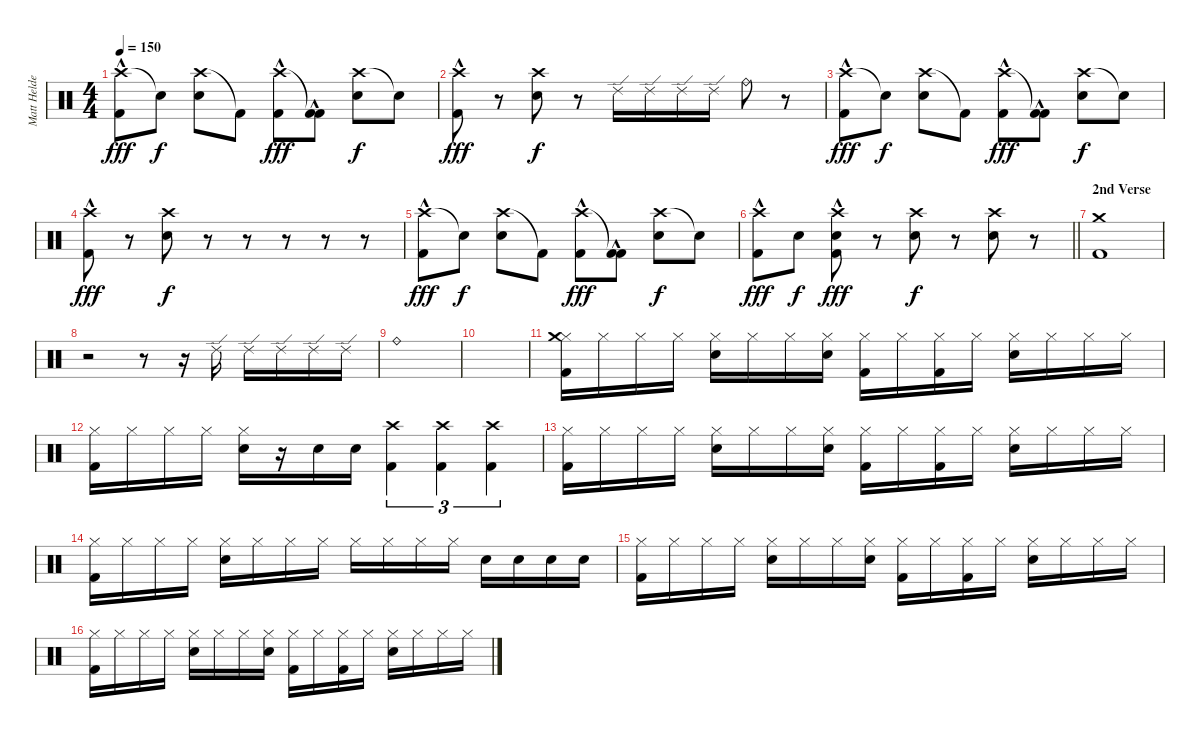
\track ("Matt Helders" "Matt Helde") {instrument percussion}
\staff {score}
\articulation defaults
\ts (4 4)
\tempo 150
\clef neutral
\ks c
("Crash high (hit)" "Kick (hit) 2"{hac}).8{dy fff} "Snare (hit)"{t}.8{dy f} ("Crash high (hit)" "Snare (hit) 2").8 "Kick (hit) 2"{t}.8 ("Crash high (hit)" "Kick (hit) 2"{hac}).8{dy fff} ("Kick (hit) 2"{t} "Kick (hit) 2"{hac}).8 ("Crash high (hit)" "Snare (hit) 2").8{dy f} "Snare (hit)"{t}.8 |
("Crash high (hit)" "Kick (hit) 2"{hac}).8{dy fff} r.8 ("Crash high (hit)" "Snare (hit) 2").8{dy f} r.8 "Ride (edge) 2".16 "Ride (edge) 2".16 "Ride (edge) 2".16 "Ride (edge) 2".16 "Ride (bell)".8 r.8 |
("Crash high (hit)" "Kick (hit) 2"{hac}).8{dy fff} "Snare (hit)"{t}.8{dy f} ("Crash high (hit)" "Snare (hit) 2").8 "Kick (hit) 2"{t}.8 ("Crash high (hit)" "Kick (hit) 2"{hac}).8{dy fff} ("Kick (hit) 2"{t} "Kick (hit) 2"{hac}).8 ("Crash high (hit)" "Snare (hit) 2").8{dy f} "Snare (hit)"{t}.8 |
("Crash high (hit)" "Kick (hit) 2"{hac}).8{dy fff} r.8 ("Crash high (hit)" "Snare (hit) 2").8{dy f} r.8 r.8 r.8 r.8 r.8 |
("Crash high (hit)" "Kick (hit) 2"{hac}).8{dy fff} "Snare (hit)"{t}.8{dy f} ("Crash high (hit)" "Snare (hit) 2").8 "Kick (hit) 2"{t}.8 ("Crash high (hit)" "Kick (hit) 2"{hac}).8{dy fff} ("Kick (hit) 2"{t} "Kick (hit) 2"{hac}).8 ("Crash high (hit)" "Snare (hit) 2").8{dy f} "Snare (hit)"{t}.8 |
\barLineRight lightlight
("Crash high (hit)" "Kick (hit) 2"{hac}).8{dy fff} "Snare (hit) 2".8{dy f} ("Crash high (hit)" "Snare (hit) 2" "Kick (hit) 2"{hac}).8{dy fff} r.8 ("Crash high (hit)" "Snare (hit) 2").8{dy f} r.8 ("Crash high (hit)" "Snare (hit) 2").8 r.8 |
\section ("" "2nd Verse")
("Crash medium (hit)" "Kick (hit) 2").1 |
r.2 r.8 r.16 "Ride (edge) 2".16 "Ride (edge) 2".16 "Ride (edge) 2".16 "Ride (edge) 2".16 "Ride (edge) 2".16 |
"Ride (bell)".1 |
|
("Hi-Hat (closed)" "Crash medium (hit)" "Kick (hit) 2").16 "Hi-Hat (closed)".16 "Hi-Hat (closed)".16 "Hi-Hat (closed)".16 ("Hi-Hat (closed)" "Snare (hit) 2").16 "Hi-Hat (closed)".16 "Hi-Hat (closed)".16 ("Hi-Hat (closed)" "Snare (hit) 2").16 ("Hi-Hat (closed)" "Kick (hit) 2").16 "Hi-Hat (closed)".16 ("Hi-Hat (closed)" "Kick (hit) 2").16 "Hi-Hat (closed)".16 ("Hi-Hat (closed)" "Snare (hit) 2").16 "Hi-Hat (closed)".16 "Hi-Hat (closed)".16 "Hi-Hat (closed)".16 |
("Hi-Hat (closed)" "Kick (hit) 2").16 "Hi-Hat (closed)".16 "Hi-Hat (closed)".16 "Hi-Hat (closed)".16 ("Hi-Hat (closed)" "Snare (hit) 2").16 r.16 "Snare (hit) 2".16 "Snare (hit) 2".16 ("Kick (hit) 2" "Crash high (hit)").4{tu (3 2)} ("Kick (hit) 2" "Crash high (hit)").4{tu (3 2)} ("Kick (hit) 2" "Crash high (hit)").4{tu (3 2)} |
("Hi-Hat (closed)" "Kick (hit) 2").16 "Hi-Hat (closed)".16 "Hi-Hat (closed)".16 "Hi-Hat (closed)".16 ("Hi-Hat (closed)" "Snare (hit) 2").16 "Hi-Hat (closed)".16 "Hi-Hat (closed)".16 ("Hi-Hat (closed)" "Snare (hit) 2").16 ("Hi-Hat (closed)" "Kick (hit) 2").16 "Hi-Hat (closed)".16 ("Hi-Hat (closed)" "Kick (hit) 2").16 "Hi-Hat (closed)".16 ("Hi-Hat (closed)" "Snare (hit) 2").16 "Hi-Hat (closed)".16 "Hi-Hat (closed)".16 "Hi-Hat (closed)".16 |
("Hi-Hat (closed)" "Kick (hit) 2").16 "Hi-Hat (closed)".16 "Hi-Hat (closed)".16 "Hi-Hat (closed)".16 ("Hi-Hat (closed)" "Snare (hit) 2").16 "Hi-Hat (closed)".16 "Hi-Hat (closed)".16 "Hi-Hat (closed)".16 "Hi-Hat (closed)".16 "Hi-Hat (closed)".16 "Hi-Hat (closed)".16 "Hi-Hat (closed)".16 "Snare (hit) 2".16 "Snare (hit) 2".16 "Snare (hit) 2".16 "Snare (hit) 2".16 |
("Hi-Hat (closed)" "Kick (hit) 2").16 "Hi-Hat (closed)".16 "Hi-Hat (closed)".16 "Hi-Hat (closed)".16 ("Hi-Hat (closed)" "Snare (hit) 2").16 "Hi-Hat (closed)".16 "Hi-Hat (closed)".16 ("Hi-Hat (closed)" "Snare (hit) 2").16 ("Hi-Hat (closed)" "Kick (hit) 2").16 "Hi-Hat (closed)".16 ("Hi-Hat (closed)" "Kick (hit) 2").16 "Hi-Hat (closed)".16 ("Hi-Hat (closed)" "Snare (hit) 2").16 "Hi-Hat (closed)".16 "Hi-Hat (closed)".16 "Hi-Hat (closed)".16 |
("Hi-Hat (closed)" "Kick (hit) 2").16 "Hi-Hat (closed)".16 "Hi-Hat (closed)".16 "Hi-Hat (closed)".16 ("Hi-Hat (closed)" "Snare (hit) 2").16 "Hi-Hat (closed)".16 "Hi-Hat (closed)".16 ("Hi-Hat (closed)" "Snare (hit) 2").16 ("Hi-Hat (closed)" "Kick (hit) 2").16 "Hi-Hat (closed)".16 ("Hi-Hat (closed)" "Kick (hit) 2").16 "Hi-Hat (closed)".16 ("Hi-Hat (closed)" "Snare (hit) 2").16 "Hi-Hat (closed)".16 "Hi-Hat (closed)".16 "Hi-Hat (closed)".16
